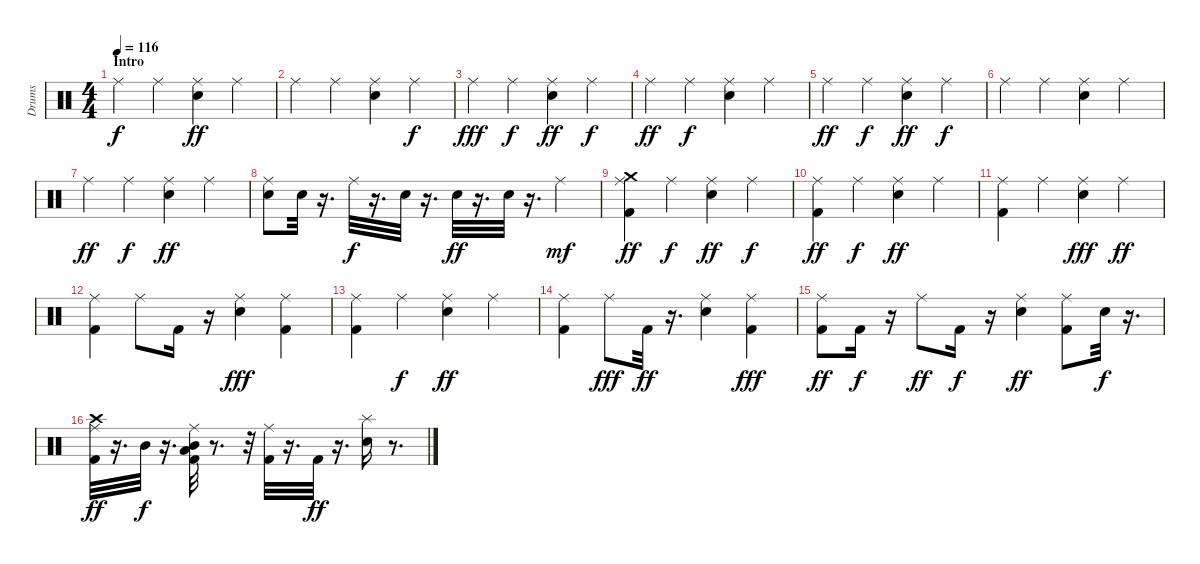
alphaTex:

\track ("Drums" "Drums") {instrument percussion}
\staff {score}
\articulation defaults
\ts (4 4)
\section ("" "Intro")
\tempo 116
\clef neutral
\ks c "Ride (middle)".4{dy f} "Ride (middle)".4
("Snare (hit) 2" "Ride (middle)").4{dy ff} "Ride (middle)".4 |
"Ride (middle)".4 "Ride (middle)".4 ("Ride (middle)" "Snare (hit) 2").4 "Ride (middle)".4{dy f} |
"Ride (middle)".4{dy fff} "Ride (middle)".4{dy f} ("Snare (hit) 2" "Ride (middle)").4{dy ff} "Ride (middle)".4{dy f} |
"Ride (middle)".4{dy ff} "Ride (middle)".4{dy f} ("Snare (hit) 2" "Ride (middle)").4 "Ride (middle)".4 |
"Ride (middle)".4{dy ff} "Ride (middle)".4{dy f} ("Snare (hit) 2" "Ride (middle)").4{dy ff} "Ride (middle)".4{dy f} |
"Ride (middle)".4 "Ride (middle)".4 ("Snare (hit) 2" "Ride (middle)").4 "Ride (middle)".4 |
"Ride (middle)".4{dy ff} "Ride (middle)".4{dy f} ("Snare (hit) 2" "Ride (middle)").4{dy ff} "Ride (middle)".4 |
("Snare (hit) 2" "Ride (middle)").8 "Snare (hit) 2".32 r.16{d} "Ride (middle)".32{dy f} r.16{d} "Snare (hit) 2".32 r.16{d} "Snare (hit) 2".32{dy ff} r.16{d} "Snare (hit) 2".32 r.16{d} "Ride (middle)".4{dy mf} |
("Kick (hit) 2" "Ride (middle)" "Crash medium (hit)").4{dy ff} "Ride (middle)".4{dy f} ("Snare (hit) 2" "Ride (middle)").4{dy ff} "Ride (middle)".4{dy f} |
("Kick (hit) 2" "Ride (middle)").4{dy ff} "Ride (middle)".4{dy f} ("Snare (hit) 2" "Ride (middle)").4{dy ff} "Ride (middle)".4 |
("Kick (hit) 2" "Ride (middle)").4 "Ride (middle)".4 ("Snare (hit) 2" "Ride (middle)").4{dy fff} "Ride (middle)".4{dy ff} |
("Kick (hit) 2" "Ride (middle)").4 "Ride (middle)".8 "Kick (hit) 2".16 r.16 ("Snare (hit) 2" "Ride (middle)").4{dy fff} ("Kick (hit) 2" "Ride (middle)").4 |
("Kick (hit) 2" "Ride (middle)").4 "Ride (middle)".4{dy f} ("Ride (middle)" "Snare (hit) 2").4{dy ff} "Ride (middle)".4 |
("Kick (hit) 2" "Ride (middle)").4 "Ride (middle)".8{dy fff} "Kick (hit) 2".32{dy ff} r.16{d} ("Snare (hit) 2" "Ride (middle)").4 ("Kick (hit) 2" "Ride (middle)").4{dy fff} |
("Kick (hit) 2" "Ride (middle)").8{dy ff} "Kick (hit) 2".16{dy f} r.16 "Ride (middle)".8{dy ff} "Kick (hit) 2".16{dy f} r.16 ("Snare (hit) 2" "Ride (middle)").4{dy ff} ("Kick (hit) 2" "Ride (middle)").8 "Snare (hit) 2".32{dy f} r.16{d} |
("Crash high (hit)" "Ride (middle)" "Kick (hit) 2").32{dy ff} r.16{d} "Mid Tom (hit)".32{dy f} r.16{d} ("Ride (middle)" "Low Tom (hit)" "Mid Tom (hit)" "Kick (hit) 2").32 r.8{d} r.32 ("Ride (middle)" "Kick (hit) 2").32 r.16{d} "Kick (hit) 2".32{dy ff} r.16{d} ("Splash (hit)" "Snare (hit) 2").16 r.8{d}
